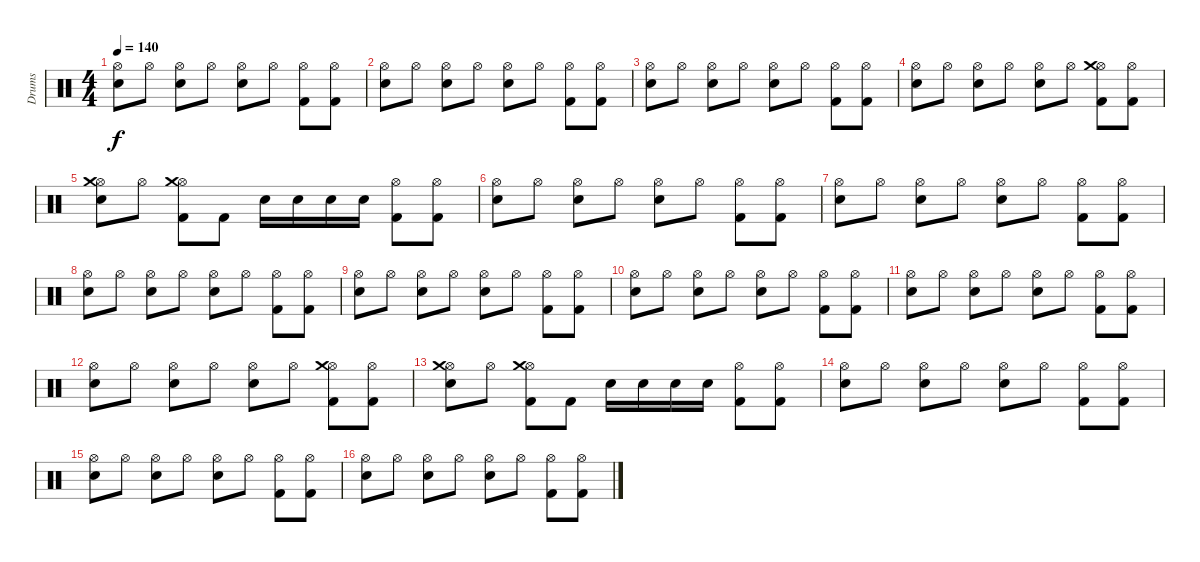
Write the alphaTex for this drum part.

\track ("Drums" "Drums") {instrument percussion}
\staff {score}
\articulation defaults
\ts (4 4)
\tempo 140
\clef neutral
\ks c
("Hi-Hat (open)" "Snare (hit) 2").8{dy f} "Hi-Hat (open)".8 ("Snare (hit) 2" "Hi-Hat (open)").8 "Hi-Hat (open)".8 ("Snare (hit) 2" "Hi-Hat (open)").8 "Hi-Hat (open)".8 ("Hi-Hat (open)" "Kick (hit) 2").8 ("Hi-Hat (open)" "Kick (hit) 2").8 |
("Hi-Hat (open)" "Snare (hit) 2").8 "Hi-Hat (open)".8 ("Snare (hit) 2" "Hi-Hat (open)").8 "Hi-Hat (open)".8 ("Snare (hit) 2" "Hi-Hat (open)").8 "Hi-Hat (open)".8 ("Hi-Hat (open)" "Kick (hit) 2").8 ("Hi-Hat (open)" "Kick (hit) 2").8 |
("Hi-Hat (open)" "Snare (hit) 2").8 "Hi-Hat (open)".8 ("Snare (hit) 2" "Hi-Hat (open)").8 "Hi-Hat (open)".8 ("Snare (hit) 2" "Hi-Hat (open)").8 "Hi-Hat (open)".8 ("Hi-Hat (open)" "Kick (hit) 2").8 ("Hi-Hat (open)" "Kick (hit) 2").8 |
("Hi-Hat (open)" "Snare (hit) 2").8 "Hi-Hat (open)".8 ("Snare (hit) 2" "Hi-Hat (open)").8 "Hi-Hat (open)".8 ("Snare (hit) 2" "Hi-Hat (open)").8 "Hi-Hat (open)".8 ("Hi-Hat (open)" "Crash medium (hit)" "Kick (hit) 2").8 ("Hi-Hat (open)" "Kick (hit) 2").8 |
("Snare (hit) 2" "Hi-Hat (open)" "Crash medium (hit)").8 "Hi-Hat (open)".8 ("Hi-Hat (open)" "Crash medium (hit)" "Kick (hit) 2").8 "Kick (hit) 2".8 "Snare (hit) 2".16 "Snare (hit) 2".16 "Snare (hit) 2".16 "Snare (hit) 2".16 ("Hi-Hat (open)" "Kick (hit) 2").8 ("Hi-Hat (open)" "Kick (hit) 2").8 |
("Hi-Hat (open)" "Snare (hit) 2").8 "Hi-Hat (open)".8 ("Snare (hit) 2" "Hi-Hat (open)").8 "Hi-Hat (open)".8 ("Snare (hit) 2" "Hi-Hat (open)").8 "Hi-Hat (open)".8 ("Hi-Hat (open)" "Kick (hit) 2").8 ("Hi-Hat (open)" "Kick (hit) 2").8 |
("Hi-Hat (open)" "Snare (hit) 2").8 "Hi-Hat (open)".8 ("Snare (hit) 2" "Hi-Hat (open)").8 "Hi-Hat (open)".8 ("Snare (hit) 2" "Hi-Hat (open)").8 "Hi-Hat (open)".8 ("Hi-Hat (open)" "Kick (hit) 2").8 ("Hi-Hat (open)" "Kick (hit) 2").8 |
("Hi-Hat (open)" "Snare (hit) 2").8 "Hi-Hat (open)".8 ("Snare (hit) 2" "Hi-Hat (open)").8 "Hi-Hat (open)".8 ("Snare (hit) 2" "Hi-Hat (open)").8 "Hi-Hat (open)".8 ("Hi-Hat (open)" "Kick (hit) 2").8 ("Hi-Hat (open)" "Kick (hit) 2").8 |
("Hi-Hat (open)" "Snare (hit) 2").8 "Hi-Hat (open)".8 ("Snare (hit) 2" "Hi-Hat (open)").8 "Hi-Hat (open)".8 ("Snare (hit) 2" "Hi-Hat (open)").8 "Hi-Hat (open)".8 ("Hi-Hat (open)" "Kick (hit) 2").8 ("Hi-Hat (open)" "Kick (hit) 2").8 |
("Hi-Hat (open)" "Snare (hit) 2").8 "Hi-Hat (open)".8 ("Snare (hit) 2" "Hi-Hat (open)").8 "Hi-Hat (open)".8 ("Snare (hit) 2" "Hi-Hat (open)").8 "Hi-Hat (open)".8 ("Hi-Hat (open)" "Kick (hit) 2").8 ("Hi-Hat (open)" "Kick (hit) 2").8 |
("Hi-Hat (open)" "Snare (hit) 2").8 "Hi-Hat (open)".8 ("Snare (hit) 2" "Hi-Hat (open)").8 "Hi-Hat (open)".8 ("Snare (hit) 2" "Hi-Hat (open)").8 "Hi-Hat (open)".8 ("Hi-Hat (open)" "Kick (hit) 2").8 ("Hi-Hat (open)" "Kick (hit) 2").8 |
("Hi-Hat (open)" "Snare (hit) 2").8 "Hi-Hat (open)".8 ("Snare (hit) 2" "Hi-Hat (open)").8 "Hi-Hat (open)".8 ("Snare (hit) 2" "Hi-Hat (open)").8 "Hi-Hat (open)".8 ("Hi-Hat (open)" "Crash medium (hit)" "Kick (hit) 2").8 ("Hi-Hat (open)" "Kick (hit) 2").8 |
("Snare (hit) 2" "Hi-Hat (open)" "Crash medium (hit)").8 "Hi-Hat (open)".8 ("Hi-Hat (open)" "Crash medium (hit)" "Kick (hit) 2").8 "Kick (hit) 2".8 "Snare (hit) 2".16 "Snare (hit) 2".16 "Snare (hit) 2".16 "Snare (hit) 2".16 ("Hi-Hat (open)" "Kick (hit) 2").8 ("Hi-Hat (open)" "Kick (hit) 2").8 |
("Hi-Hat (open)" "Snare (hit) 2").8 "Hi-Hat (open)".8 ("Snare (hit) 2" "Hi-Hat (open)").8 "Hi-Hat (open)".8 ("Snare (hit) 2" "Hi-Hat (open)").8 "Hi-Hat (open)".8 ("Hi-Hat (open)" "Kick (hit) 2").8 ("Hi-Hat (open)" "Kick (hit) 2").8 |
("Hi-Hat (open)" "Snare (hit) 2").8 "Hi-Hat (open)".8 ("Snare (hit) 2" "Hi-Hat (open)").8 "Hi-Hat (open)".8 ("Snare (hit) 2" "Hi-Hat (open)").8 "Hi-Hat (open)".8 ("Hi-Hat (open)" "Kick (hit) 2").8 ("Hi-Hat (open)" "Kick (hit) 2").8 |
("Hi-Hat (open)" "Snare (hit) 2").8 "Hi-Hat (open)".8 ("Snare (hit) 2" "Hi-Hat (open)").8 "Hi-Hat (open)".8 ("Snare (hit) 2" "Hi-Hat (open)").8 "Hi-Hat (open)".8 ("Hi-Hat (open)" "Kick (hit) 2").8 ("Hi-Hat (open)" "Kick (hit) 2").8
